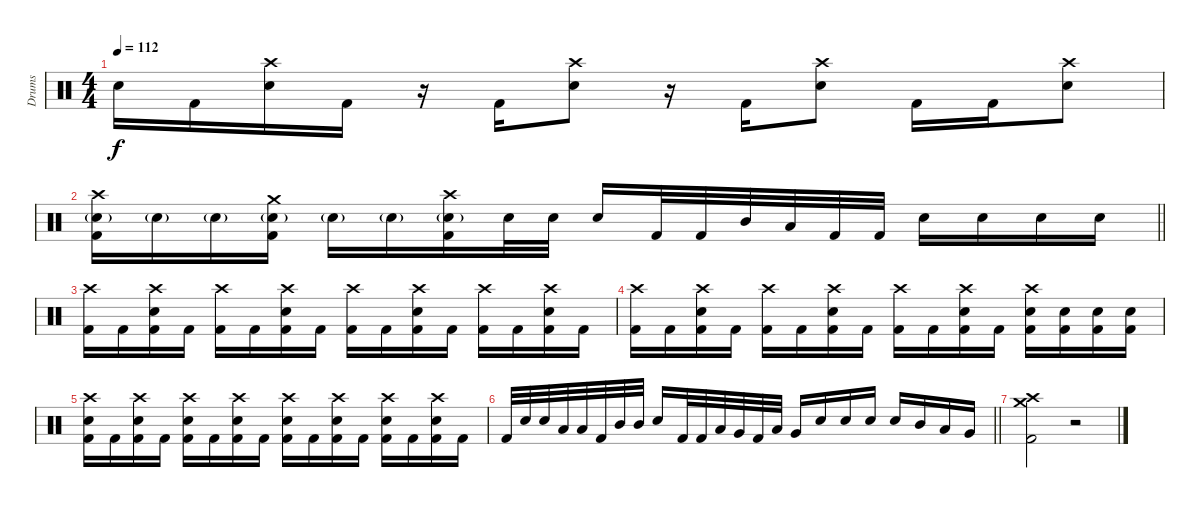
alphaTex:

\track ("Drums" "Drums") {instrument percussion}
\staff {score}
\articulation defaults
\ts (4 4)
\tempo 112
\clef neutral
\ks c "Electric Snare (hit)".16{dy f} "Kick (hit) 2".16
("Crash high (hit)" "Electric Snare (hit)").16 "Kick (hit) 2".16 r.16 "Kick (hit) 2".16 ("Crash high (hit)" "Electric Snare (hit)").8 r.16 "Kick (hit) 2".16 ("Crash high (hit)" "Electric Snare (hit)").8 "Kick (hit) 2".16 "Kick (hit) 2".16 ("Crash high (hit)" "Electric Snare (hit)").8 |
\barLineRight lightlight
("Crash high (hit)" "Electric Snare (hit)"{g} "Kick (hit) 2").16 "Electric Snare (hit)"{g}.16 "Electric Snare (hit)"{g}.16 ("Crash medium (hit)" "Electric Snare (hit)"{g} "Kick (hit) 2").16 "Electric Snare (hit)"{g}.16 "Electric Snare (hit)"{g}.16 ("Crash high (hit)" "Electric Snare (hit)"{g} "Kick (hit) 2").16 "Electric Snare (hit)".32 "Electric Snare (hit)".32 "Electric Snare (hit)".16 "Kick (hit) 2".32 "Kick (hit) 2".32 "Mid Tom (hit)".32 "Low Tom (hit)".32 "Kick (hit) 2".32 "Kick (hit) 2".32 "Electric Snare (hit)".16 "Electric Snare (hit)".16 "Electric Snare (hit)".16 "Electric Snare (hit)".16 |
("Crash high (hit)" "Kick (hit) 2").16 "Kick (hit) 2".16 ("Crash high (hit)" "Electric Snare (hit)" "Kick (hit) 2").16 "Kick (hit) 2".16 ("Crash high (hit)" "Kick (hit) 2").16 "Kick (hit) 2".16 ("Crash high (hit)" "Electric Snare (hit)" "Kick (hit) 2").16 "Kick (hit) 2".16 ("Crash high (hit)" "Kick (hit) 2").16 "Kick (hit) 2".16 ("Crash high (hit)" "Electric Snare (hit)" "Kick (hit) 2").16 "Kick (hit) 2".16 ("Crash high (hit)" "Kick (hit) 2").16 "Kick (hit) 2".16 ("Crash high (hit)" "Electric Snare (hit)" "Kick (hit) 2").16 "Kick (hit) 2".16 |
("Crash high (hit)" "Kick (hit) 2").16 "Kick (hit) 2".16 ("Crash high (hit)" "Electric Snare (hit)" "Kick (hit) 2").16 "Kick (hit) 2".16 ("Crash high (hit)" "Kick (hit) 2").16 "Kick (hit) 2".16 ("Crash high (hit)" "Electric Snare (hit)" "Kick (hit) 2").16 "Kick (hit) 2".16 ("Crash high (hit)" "Kick (hit) 2").16 "Kick (hit) 2".16 ("Crash high (hit)" "Electric Snare (hit)" "Kick (hit) 2").16 "Kick (hit) 2".16 ("Crash high (hit)" "Electric Snare (hit)" "Kick (hit) 2").16 ("Electric Snare (hit)" "Kick (hit) 2").16 ("Electric Snare (hit)" "Kick (hit) 2").16 ("Electric Snare (hit)" "Kick (hit) 2").16 |
("Crash high (hit)" "Electric Snare (hit)" "Kick (hit) 2").16 "Kick (hit) 2".16 ("Crash high (hit)" "Electric Snare (hit)" "Kick (hit) 2").16 "Kick (hit) 2".16 ("Crash high (hit)" "Electric Snare (hit)" "Kick (hit) 2").16 "Kick (hit) 2".16 ("Crash high (hit)" "Electric Snare (hit)" "Kick (hit) 2").16 "Kick (hit) 2".16 ("Crash high (hit)" "Electric Snare (hit)" "Kick (hit) 2").16 "Kick (hit) 2".16 ("Crash high (hit)" "Electric Snare (hit)" "Kick (hit) 2").16 "Kick (hit) 2".16 ("Crash high (hit)" "Electric Snare (hit)" "Kick (hit) 2").16 "Kick (hit) 2".16 ("Crash high (hit)" "Electric Snare (hit)" "Kick (hit) 2").16 "Kick (hit) 2".16 |
\barLineRight lightlight "Kick (hit) 2".32 "Electric Snare (hit)".32 "Electric Snare (hit)".32 "Low Tom (hit)".32 "Low Tom (hit)".32 "Kick (hit) 2".32 "Mid Tom (hit)".32 "Mid Tom (hit)".32 "Electric Snare (hit)".16 "Kick (hit) 2".32 "Kick (hit) 2".32 "Low Tom (hit)".32 "Very Low Tom (hit)".32 "Kick (hit) 2".32 "Low Tom (hit)".32 "Very Low Tom (hit)".16 "Electric Snare (hit)".16 "Electric Snare (hit)".16 "Electric Snare (hit)".16 "Electric Snare (hit)".16 "Mid Tom (hit)".16 "Low Tom (hit)".16 "Very Low Tom (hit)".16
|
("Crash high (hit)" "Crash medium (hit)" "Kick (hit) 2").2 r.2
